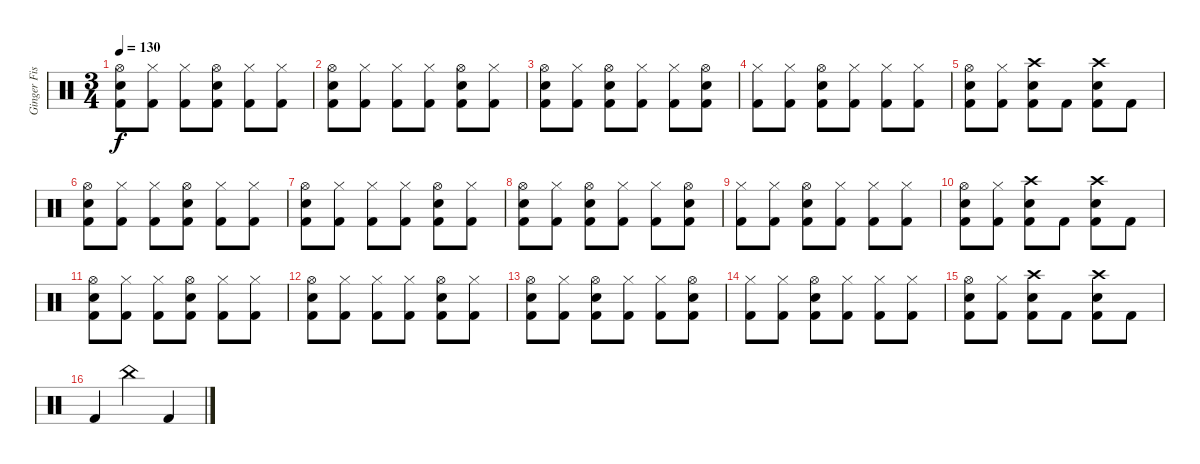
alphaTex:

\track ("Ginger Fish" "Ginger Fis") {instrument percussion}
\staff {score}
\articulation defaults
\ts (3 4)
\tempo 130
\clef neutral
\ks c
("Hi-Hat (open)" "Snare (hit) 2" "Kick (hit) 2").8{dy f} ("Hi-Hat (closed)" "Kick (hit) 2").8 ("Hi-Hat (closed)" "Kick (hit) 2").8 ("Hi-Hat (open)" "Snare (hit) 2" "Kick (hit) 2").8 ("Hi-Hat (closed)" "Kick (hit) 2").8 ("Hi-Hat (closed)" "Kick (hit) 2").8 |
("Hi-Hat (open)" "Snare (hit) 2" "Kick (hit) 2").8 ("Hi-Hat (closed)" "Kick (hit) 2").8 ("Hi-Hat (closed)" "Kick (hit) 2").8 ("Hi-Hat (closed)" "Kick (hit) 2").8 ("Hi-Hat (open)" "Snare (hit) 2" "Kick (hit) 2").8 ("Hi-Hat (closed)" "Kick (hit) 2").8 |
("Hi-Hat (open)" "Snare (hit) 2" "Kick (hit) 2").8 ("Hi-Hat (closed)" "Kick (hit) 2").8 ("Hi-Hat (open)" "Snare (hit) 2" "Kick (hit) 2").8 ("Hi-Hat (closed)" "Kick (hit) 2").8 ("Hi-Hat (closed)" "Kick (hit) 2").8 ("Hi-Hat (open)" "Snare (hit) 2" "Kick (hit) 2").8 |
("Hi-Hat (closed)" "Kick (hit) 2").8 ("Hi-Hat (closed)" "Kick (hit) 2").8 ("Hi-Hat (open)" "Snare (hit) 2" "Kick (hit) 2").8 ("Hi-Hat (closed)" "Kick (hit) 2").8 ("Hi-Hat (closed)" "Kick (hit) 2").8 ("Hi-Hat (closed)" "Kick (hit) 2").8 |
("Hi-Hat (open)" "Snare (hit) 2" "Kick (hit) 2").8 ("Hi-Hat (closed)" "Kick (hit) 2").8 ("Crash high (hit)" "Snare (hit) 2" "Kick (hit) 2").8 "Kick (hit) 2".8 ("Crash high (hit)" "Snare (hit) 2" "Kick (hit) 2").8 "Kick (hit) 2".8 |
("Hi-Hat (open)" "Snare (hit) 2" "Kick (hit) 2").8 ("Hi-Hat (closed)" "Kick (hit) 2").8 ("Hi-Hat (closed)" "Kick (hit) 2").8 ("Hi-Hat (open)" "Snare (hit) 2" "Kick (hit) 2").8 ("Hi-Hat (closed)" "Kick (hit) 2").8 ("Hi-Hat (closed)" "Kick (hit) 2").8 |
("Hi-Hat (open)" "Snare (hit) 2" "Kick (hit) 2").8 ("Hi-Hat (closed)" "Kick (hit) 2").8 ("Hi-Hat (closed)" "Kick (hit) 2").8 ("Hi-Hat (closed)" "Kick (hit) 2").8 ("Hi-Hat (open)" "Snare (hit) 2" "Kick (hit) 2").8 ("Hi-Hat (closed)" "Kick (hit) 2").8 |
("Hi-Hat (open)" "Snare (hit) 2" "Kick (hit) 2").8 ("Hi-Hat (closed)" "Kick (hit) 2").8 ("Hi-Hat (open)" "Snare (hit) 2" "Kick (hit) 2").8 ("Hi-Hat (closed)" "Kick (hit) 2").8 ("Hi-Hat (closed)" "Kick (hit) 2").8 ("Hi-Hat (open)" "Snare (hit) 2" "Kick (hit) 2").8 |
("Hi-Hat (closed)" "Kick (hit) 2").8 ("Hi-Hat (closed)" "Kick (hit) 2").8 ("Hi-Hat (open)" "Snare (hit) 2" "Kick (hit) 2").8 ("Hi-Hat (closed)" "Kick (hit) 2").8 ("Hi-Hat (closed)" "Kick (hit) 2").8 ("Hi-Hat (closed)" "Kick (hit) 2").8 |
("Hi-Hat (open)" "Snare (hit) 2" "Kick (hit) 2").8 ("Hi-Hat (closed)" "Kick (hit) 2").8 ("Crash high (hit)" "Snare (hit) 2" "Kick (hit) 2").8 "Kick (hit) 2".8 ("Crash high (hit)" "Snare (hit) 2" "Kick (hit) 2").8 "Kick (hit) 2".8 |
("Hi-Hat (open)" "Snare (hit) 2" "Kick (hit) 2").8 ("Hi-Hat (closed)" "Kick (hit) 2").8 ("Hi-Hat (closed)" "Kick (hit) 2").8 ("Hi-Hat (open)" "Snare (hit) 2" "Kick (hit) 2").8 ("Hi-Hat (closed)" "Kick (hit) 2").8 ("Hi-Hat (closed)" "Kick (hit) 2").8 |
("Hi-Hat (open)" "Snare (hit) 2" "Kick (hit) 2").8 ("Hi-Hat (closed)" "Kick (hit) 2").8 ("Hi-Hat (closed)" "Kick (hit) 2").8 ("Hi-Hat (closed)" "Kick (hit) 2").8 ("Hi-Hat (open)" "Snare (hit) 2" "Kick (hit) 2").8 ("Hi-Hat (closed)" "Kick (hit) 2").8 |
("Hi-Hat (open)" "Snare (hit) 2" "Kick (hit) 2").8 ("Hi-Hat (closed)" "Kick (hit) 2").8 ("Hi-Hat (open)" "Snare (hit) 2" "Kick (hit) 2").8 ("Hi-Hat (closed)" "Kick (hit) 2").8 ("Hi-Hat (closed)" "Kick (hit) 2").8 ("Hi-Hat (open)" "Snare (hit) 2" "Kick (hit) 2").8 |
("Hi-Hat (closed)" "Kick (hit) 2").8 ("Hi-Hat (closed)" "Kick (hit) 2").8 ("Hi-Hat (open)" "Snare (hit) 2" "Kick (hit) 2").8 ("Hi-Hat (closed)" "Kick (hit) 2").8 ("Hi-Hat (closed)" "Kick (hit) 2").8 ("Hi-Hat (closed)" "Kick (hit) 2").8 |
("Hi-Hat (open)" "Snare (hit) 2" "Kick (hit) 2").8 ("Hi-Hat (closed)" "Kick (hit) 2").8 ("Crash high (hit)" "Snare (hit) 2" "Kick (hit) 2").8 "Kick (hit) 2".8 ("Crash high (hit)" "Snare (hit) 2" "Kick (hit) 2").8 "Kick (hit) 2".8 |
"Kick (hit) 2".4 "China (hit)".4 "Kick (hit) 2".4
